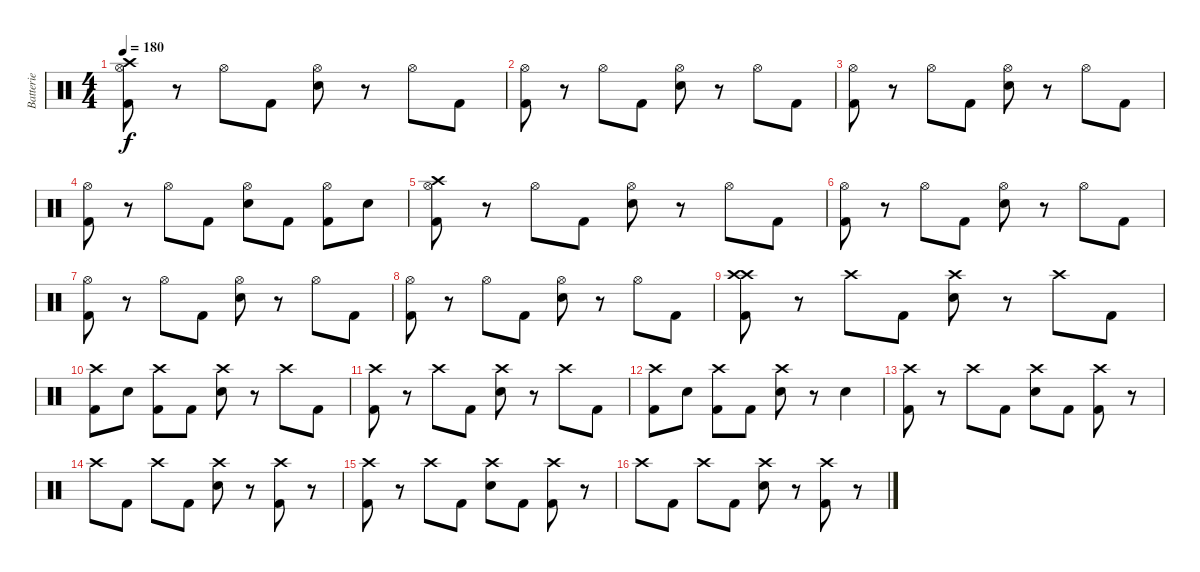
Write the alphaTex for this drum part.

\track ("Batterie" "Batterie") {instrument percussion}
\staff {score}
\articulation defaults
\ts (4 4)
\tempo 180
\clef neutral
\ks c
("Crash high (hit)" "Hi-Hat (open)" "Kick (hit) 2").8{dy f} r.8 "Hi-Hat (open)".8 "Kick (hit) 2".8 ("Hi-Hat (open)" "Snare (hit) 2").8 r.8 "Hi-Hat (open)".8 "Kick (hit) 2".8 |
("Hi-Hat (open)" "Kick (hit) 2").8 r.8 "Hi-Hat (open)".8 "Kick (hit) 2".8 ("Hi-Hat (open)" "Snare (hit) 2").8 r.8 "Hi-Hat (open)".8 "Kick (hit) 2".8 |
("Hi-Hat (open)" "Kick (hit) 2").8 r.8 "Hi-Hat (open)".8 "Kick (hit) 2".8 ("Hi-Hat (open)" "Snare (hit) 2").8 r.8 "Hi-Hat (open)".8 "Kick (hit) 2".8 |
("Hi-Hat (open)" "Kick (hit) 2").8 r.8 "Hi-Hat (open)".8 "Kick (hit) 2".8 ("Hi-Hat (open)" "Snare (hit) 2").8 "Kick (hit) 2".8 ("Hi-Hat (open)" "Kick (hit) 2").8 "Snare (hit) 2".8 |
("Crash high (hit)" "Hi-Hat (open)" "Kick (hit) 2").8 r.8 "Hi-Hat (open)".8 "Kick (hit) 2".8 ("Hi-Hat (open)" "Snare (hit) 2").8 r.8 "Hi-Hat (open)".8 "Kick (hit) 2".8 |
("Hi-Hat (open)" "Kick (hit) 2").8 r.8 "Hi-Hat (open)".8 "Kick (hit) 2".8 ("Hi-Hat (open)" "Snare (hit) 2").8 r.8 "Hi-Hat (open)".8 "Kick (hit) 2".8 |
("Hi-Hat (open)" "Kick (hit) 2").8 r.8 "Hi-Hat (open)".8 "Kick (hit) 2".8 ("Hi-Hat (open)" "Snare (hit) 2").8 r.8 "Hi-Hat (open)".8 "Kick (hit) 2".8 |
("Hi-Hat (open)" "Kick (hit) 2").8 r.8 "Hi-Hat (open)".8 "Kick (hit) 2".8 ("Hi-Hat (open)" "Snare (hit) 2").8 r.8 "Hi-Hat (open)".8 "Kick (hit) 2".8 |
("Crash high (hit)" "Crash high (hit)" "Kick (hit) 2").8 r.8 "Crash high (hit)".8 "Kick (hit) 2".8 ("Crash high (hit)" "Snare (hit) 2").8 r.8 "Crash high (hit)".8 "Kick (hit) 2".8 |
("Crash high (hit)" "Kick (hit) 2").8 "Snare (hit) 2".8 ("Crash high (hit)" "Kick (hit) 2").8 "Kick (hit) 2".8 ("Crash high (hit)" "Snare (hit) 2").8 r.8 "Crash high (hit)".8 "Kick (hit) 2".8 |
("Crash high (hit)" "Kick (hit) 2").8 r.8 "Crash high (hit)".8 "Kick (hit) 2".8 ("Crash high (hit)" "Snare (hit) 2").8 r.8 "Crash high (hit)".8 "Kick (hit) 2".8 |
("Crash high (hit)" "Kick (hit) 2").8 "Snare (hit) 2".8 ("Crash high (hit)" "Kick (hit) 2").8 "Kick (hit) 2".8 ("Crash high (hit)" "Snare (hit) 2").8 r.8 "Snare (hit) 2".4 |
("Crash high (hit)" "Kick (hit) 2").8 r.8 "Crash high (hit)".8 "Kick (hit) 2".8 ("Crash high (hit)" "Snare (hit) 2").8 "Kick (hit) 2".8 ("Crash high (hit)" "Kick (hit) 2").8 r.8 |
"Crash high (hit)".8 "Kick (hit) 2".8 "Crash high (hit)".8 "Kick (hit) 2".8 ("Crash high (hit)" "Snare (hit) 2").8 r.8 ("Crash high (hit)" "Kick (hit) 2").8 r.8 |
("Crash high (hit)" "Kick (hit) 2").8 r.8 "Crash high (hit)".8 "Kick (hit) 2".8 ("Crash high (hit)" "Snare (hit) 2").8 "Kick (hit) 2".8 ("Crash high (hit)" "Kick (hit) 2").8 r.8 |
"Crash high (hit)".8 "Kick (hit) 2".8 "Crash high (hit)".8 "Kick (hit) 2".8 ("Crash high (hit)" "Snare (hit) 2").8 r.8 ("Crash high (hit)" "Kick (hit) 2").8 r.8
